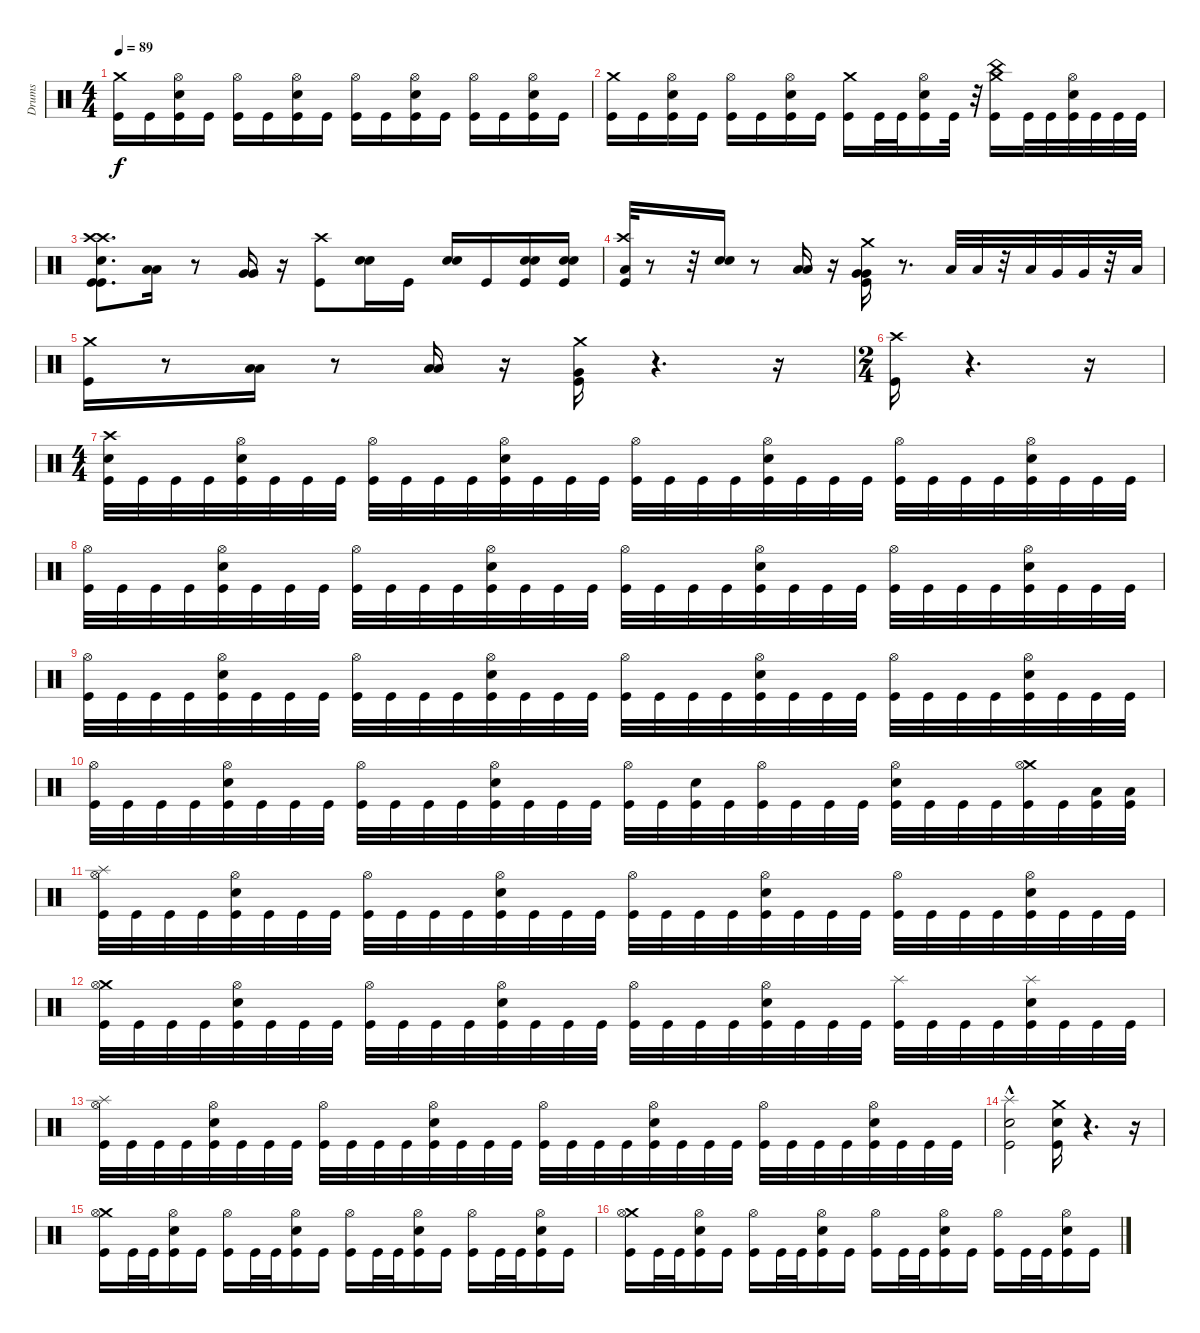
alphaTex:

\track ("Drums" "Drums") {instrument percussion}
\staff {score}
\articulation defaults
\ts (4 4)
\tempo 89
\clef neutral
\ks c
("Crash medium (hit)" "Kick (hit)").16{dy f} "Kick (hit)".16 ("Snare (hit) 2" "Hi-Hat (open)" "Kick (hit)").16 "Kick (hit)".16 ("Hi-Hat (open)" "Kick (hit)").16 "Kick (hit)".16 ("Snare (hit) 2" "Hi-Hat (open)" "Kick (hit)").16 "Kick (hit)".16 ("Hi-Hat (open)" "Kick (hit)").16 "Kick (hit)".16 ("Snare (hit) 2" "Hi-Hat (open)" "Kick (hit)").16 "Kick (hit)".16 ("Hi-Hat (open)" "Kick (hit)").16 "Kick (hit)".16 ("Snare (hit) 2" "Hi-Hat (open)" "Kick (hit)").16 "Kick (hit)".16 |
("Crash medium (hit)" "Kick (hit)").16 "Kick (hit)".16 ("Snare (hit) 2" "Hi-Hat (open)" "Kick (hit)").16 "Kick (hit)".16 ("Hi-Hat (open)" "Kick (hit)").16 "Kick (hit)".16 ("Snare (hit) 2" "Hi-Hat (open)" "Kick (hit)").16 "Kick (hit)".16 ("Kick (hit)" "Crash medium (hit)").16 "Kick (hit)".32 "Kick (hit)".32 ("Kick (hit)" "Snare (hit) 2" "Hi-Hat (open)").16 "Kick (hit)".32 r.32 ("Crash medium (hit)" "Kick (hit)" "China (hit)").16 "Kick (hit)".32 "Kick (hit)".32 ("Kick (hit)" "Snare (hit) 2" "Hi-Hat (open)").32 "Kick (hit)".32 "Kick (hit)".32 "Kick (hit)".32 |
("Crash high (hit)" "Snare (hit) 2" "Kick (hit)" "Kick (hit)" "Crash high (hit)").8{d volume 15 balance 8} ("Low Tom (hit)" "Low Tom (hit)").16 r.8 ("Very Low Tom (hit)" "Very Low Tom (hit)").16 r.16 ("Crash high (hit)" "Kick (hit)").8 ("Snare (hit) 2" "Electric Snare (hit)").16 "Kick (hit)".16 ("Snare (hit) 2" "Snare (hit) 2").16 "Kick (hit)".16 ("Kick (hit)" "Snare (hit) 2" "Electric Snare (hit)").16 ("Kick (hit)" "Snare (hit) 2" "Electric Snare (hit)").16 |
("Low Floor Tom (hit)" "Crash high (hit)" "Kick (hit)").32 r.8 r.32 ("Snare (hit) 2" "Snare (hit) 2").16 r.8 ("Low Tom (hit)" "Low Tom (hit)").16 r.16 ("Kick (hit)" "Crash medium (hit)" "Very Low Tom (hit)" "Very Low Tom (hit)").16 r.8{d} "Low Tom (hit)".32 "Low Tom (hit)".32 r.32 "Low Tom (hit)".32 "Very Low Tom (hit)".32 "Very Low Tom (hit)".32 r.32 "Low Floor Tom (hit)".32 |
("Crash medium (hit)" "Kick (hit)").16 r.8 ("Low Tom (hit)" "Low Tom (hit)").16 r.8 ("Low Floor Tom (hit)" "Low Floor Tom (hit)").16 r.16 ("Crash medium (hit)" "Very Low Tom (hit)" "Kick (hit)").16 r.4{d} r.16 |
\ts (2 4)
("Crash high (hit)" "Kick (hit)").16 r.4{d} r.16 |
\ts (4 4)
("Snare (hit) 2" "Crash high (hit)" "Kick (hit)").32{volume 15 balance 8} "Kick (hit)".32 "Kick (hit)".32 "Kick (hit)".32 ("Snare (hit) 2" "Hi-Hat (open)" "Kick (hit)").32 "Kick (hit)".32 "Kick (hit)".32 "Kick (hit)".32 ("Hi-Hat (open)" "Kick (hit)").32 "Kick (hit)".32 "Kick (hit)".32 "Kick (hit)".32 ("Snare (hit) 2" "Hi-Hat (open)" "Kick (hit)").32 "Kick (hit)".32 "Kick (hit)".32 "Kick (hit)".32 ("Hi-Hat (open)" "Kick (hit)").32 "Kick (hit)".32 "Kick (hit)".32 "Kick (hit)".32 ("Snare (hit) 2" "Hi-Hat (open)" "Kick (hit)").32 "Kick (hit)".32 "Kick (hit)".32 "Kick (hit)".32 ("Hi-Hat (open)" "Kick (hit)").32 "Kick (hit)".32 "Kick (hit)".32 "Kick (hit)".32 ("Snare (hit) 2" "Hi-Hat (open)" "Kick (hit)").32 "Kick (hit)".32 "Kick (hit)".32 "Kick (hit)".32 |
("Hi-Hat (open)" "Kick (hit)").32 "Kick (hit)".32 "Kick (hit)".32 "Kick (hit)".32 ("Snare (hit) 2" "Hi-Hat (open)" "Kick (hit)").32 "Kick (hit)".32 "Kick (hit)".32 "Kick (hit)".32 ("Hi-Hat (open)" "Kick (hit)").32 "Kick (hit)".32 "Kick (hit)".32 "Kick (hit)".32 ("Snare (hit) 2" "Hi-Hat (open)" "Kick (hit)").32 "Kick (hit)".32 "Kick (hit)".32 "Kick (hit)".32 ("Hi-Hat (open)" "Kick (hit)").32 "Kick (hit)".32 "Kick (hit)".32 "Kick (hit)".32 ("Snare (hit) 2" "Hi-Hat (open)" "Kick (hit)").32 "Kick (hit)".32 "Kick (hit)".32 "Kick (hit)".32 ("Hi-Hat (open)" "Kick (hit)").32 "Kick (hit)".32 "Kick (hit)".32 "Kick (hit)".32 ("Snare (hit) 2" "Hi-Hat (open)" "Kick (hit)").32 "Kick (hit)".32 "Kick (hit)".32 "Kick (hit)".32 |
("Hi-Hat (open)" "Kick (hit)").32 "Kick (hit)".32 "Kick (hit)".32 "Kick (hit)".32 ("Snare (hit) 2" "Hi-Hat (open)" "Kick (hit)").32 "Kick (hit)".32 "Kick (hit)".32 "Kick (hit)".32 ("Hi-Hat (open)" "Kick (hit)").32 "Kick (hit)".32 "Kick (hit)".32 "Kick (hit)".32 ("Snare (hit) 2" "Hi-Hat (open)" "Kick (hit)").32 "Kick (hit)".32 "Kick (hit)".32 "Kick (hit)".32 ("Hi-Hat (open)" "Kick (hit)").32 "Kick (hit)".32 "Kick (hit)".32 "Kick (hit)".32 ("Snare (hit) 2" "Hi-Hat (open)" "Kick (hit)").32 "Kick (hit)".32 "Kick (hit)".32 "Kick (hit)".32 ("Hi-Hat (open)" "Kick (hit)").32 "Kick (hit)".32 "Kick (hit)".32 "Kick (hit)".32 ("Snare (hit) 2" "Hi-Hat (open)" "Kick (hit)").32 "Kick (hit)".32 "Kick (hit)".32 "Kick (hit)".32 |
("Hi-Hat (open)" "Kick (hit)").32 "Kick (hit)".32 "Kick (hit)".32 "Kick (hit)".32 ("Snare (hit) 2" "Hi-Hat (open)" "Kick (hit)").32 "Kick (hit)".32 "Kick (hit)".32 "Kick (hit)".32 ("Hi-Hat (open)" "Kick (hit)").32 "Kick (hit)".32 "Kick (hit)".32 "Kick (hit)".32 ("Snare (hit) 2" "Hi-Hat (open)" "Kick (hit)").32 "Kick (hit)".32 "Kick (hit)".32 "Kick (hit)".32 ("Hi-Hat (open)" "Kick (hit)").32 "Kick (hit)".32 ("Snare (hit) 2" "Kick (hit)").32 "Kick (hit)".32 ("Hi-Hat (open)" "Kick (hit)").32 "Kick (hit)".32 "Kick (hit)".32 "Kick (hit)".32 ("Snare (hit) 2" "Hi-Hat (open)" "Kick (hit)").32 "Kick (hit)".32 "Kick (hit)".32 "Kick (hit)".32 ("Crash medium (hit)" "Hi-Hat (open)" "Kick (hit)").32 "Kick (hit)".32 ("Low Tom (hit)" "Kick (hit)").32 ("Low Tom (hit)" "Kick (hit)").32 |
("Splash (hit)" "Hi-Hat (open)" "Kick (hit)").32 "Kick (hit)".32 "Kick (hit)".32 "Kick (hit)".32 ("Snare (hit) 2" "Hi-Hat (open)" "Kick (hit)").32 "Kick (hit)".32 "Kick (hit)".32 "Kick (hit)".32 ("Hi-Hat (open)" "Kick (hit)").32 "Kick (hit)".32 "Kick (hit)".32 "Kick (hit)".32 ("Snare (hit) 2" "Hi-Hat (open)" "Kick (hit)").32 "Kick (hit)".32 "Kick (hit)".32 "Kick (hit)".32 ("Hi-Hat (open)" "Kick (hit)").32 "Kick (hit)".32 "Kick (hit)".32 "Kick (hit)".32 ("Snare (hit) 2" "Hi-Hat (open)" "Kick (hit)").32 "Kick (hit)".32 "Kick (hit)".32 "Kick (hit)".32 ("Hi-Hat (open)" "Kick (hit)").32 "Kick (hit)".32 "Kick (hit)".32 "Kick (hit)".32 ("Snare (hit) 2" "Hi-Hat (open)" "Kick (hit)").32 "Kick (hit)".32 "Kick (hit)".32 "Kick (hit)".32 |
("Crash medium (hit)" "Hi-Hat (open)" "Kick (hit)").32 "Kick (hit)".32 "Kick (hit)".32 "Kick (hit)".32 ("Snare (hit) 2" "Hi-Hat (open)" "Kick (hit)").32 "Kick (hit)".32 "Kick (hit)".32 "Kick (hit)".32 ("Hi-Hat (open)" "Kick (hit)").32 "Kick (hit)".32 "Kick (hit)".32 "Kick (hit)".32 ("Snare (hit) 2" "Hi-Hat (open)" "Kick (hit)").32 "Kick (hit)".32 "Kick (hit)".32 "Kick (hit)".32 ("Hi-Hat (open)" "Kick (hit)").32 "Kick (hit)".32 "Kick (hit)".32 "Kick (hit)".32 ("Snare (hit) 2" "Hi-Hat (open)" "Kick (hit)").32 "Kick (hit)".32 "Kick (hit)".32 "Kick (hit)".32 ("Splash (hit)" "Kick (hit)").32 "Kick (hit)".32 "Kick (hit)".32 "Kick (hit)".32 ("Splash (hit)" "Snare (hit) 2" "Kick (hit)").32 "Kick (hit)".32 "Kick (hit)".32 "Kick (hit)".32 |
("Splash (hit)" "Hi-Hat (open)" "Kick (hit)").32 "Kick (hit)".32 "Kick (hit)".32 "Kick (hit)".32 ("Snare (hit) 2" "Hi-Hat (open)" "Kick (hit)").32 "Kick (hit)".32 "Kick (hit)".32 "Kick (hit)".32 ("Hi-Hat (open)" "Kick (hit)").32 "Kick (hit)".32 "Kick (hit)".32 "Kick (hit)".32 ("Snare (hit) 2" "Hi-Hat (open)" "Kick (hit)").32 "Kick (hit)".32 "Kick (hit)".32 "Kick (hit)".32 ("Hi-Hat (open)" "Kick (hit)").32 "Kick (hit)".32 "Kick (hit)".32 "Kick (hit)".32 ("Snare (hit) 2" "Hi-Hat (open)" "Kick (hit)").32 "Kick (hit)".32 "Kick (hit)".32 "Kick (hit)".32 ("Hi-Hat (open)" "Kick (hit)").32 "Kick (hit)".32 "Kick (hit)".32 "Kick (hit)".32 ("Snare (hit) 2" "Hi-Hat (open)" "Kick (hit)").32 "Kick (hit)".32 "Kick (hit)".32 "Kick (hit)".32 |
("Snare (hit) 2" "Kick (hit)" "Splash (hit)"{hac}).2 ("Crash medium (hit)" "Electric Snare (hit)" "Kick (hit)").16 r.4{d} r.16 |
("Crash medium (hit)" "Hi-Hat (open)" "Kick (hit)").16{volume 15 balance 8} "Kick (hit)".32 "Kick (hit)".32 ("Hi-Hat (open)" "Snare (hit) 2" "Kick (hit)").16 "Kick (hit)".16 ("Hi-Hat (open)" "Kick (hit)").16 "Kick (hit)".32 "Kick (hit)".32 ("Hi-Hat (open)" "Snare (hit) 2" "Kick (hit)").16 "Kick (hit)".16 ("Hi-Hat (open)" "Kick (hit)").16 "Kick (hit)".32 "Kick (hit)".32 ("Snare (hit) 2" "Hi-Hat (open)" "Kick (hit)").16 "Kick (hit)".16 ("Hi-Hat (open)" "Kick (hit)").16 "Kick (hit)".32 "Kick (hit)".32 ("Snare (hit) 2" "Hi-Hat (open)" "Kick (hit)").16 "Kick (hit)".16 |
("Kick (hit)" "Crash medium (hit)" "Hi-Hat (open)").16 "Kick (hit)".32 "Kick (hit)".32 ("Hi-Hat (open)" "Snare (hit) 2" "Kick (hit)").16 "Kick (hit)".16 ("Hi-Hat (open)" "Kick (hit)").16 "Kick (hit)".32 "Kick (hit)".32 ("Hi-Hat (open)" "Snare (hit) 2" "Kick (hit)").16 "Kick (hit)".16 ("Hi-Hat (open)" "Kick (hit)").16 "Kick (hit)".32 "Kick (hit)".32 ("Snare (hit) 2" "Hi-Hat (open)" "Kick (hit)").16 "Kick (hit)".16 ("Hi-Hat (open)" "Kick (hit)").16 "Kick (hit)".32 "Kick (hit)".32 ("Snare (hit) 2" "Hi-Hat (open)" "Kick (hit)").16 "Kick (hit)".16
